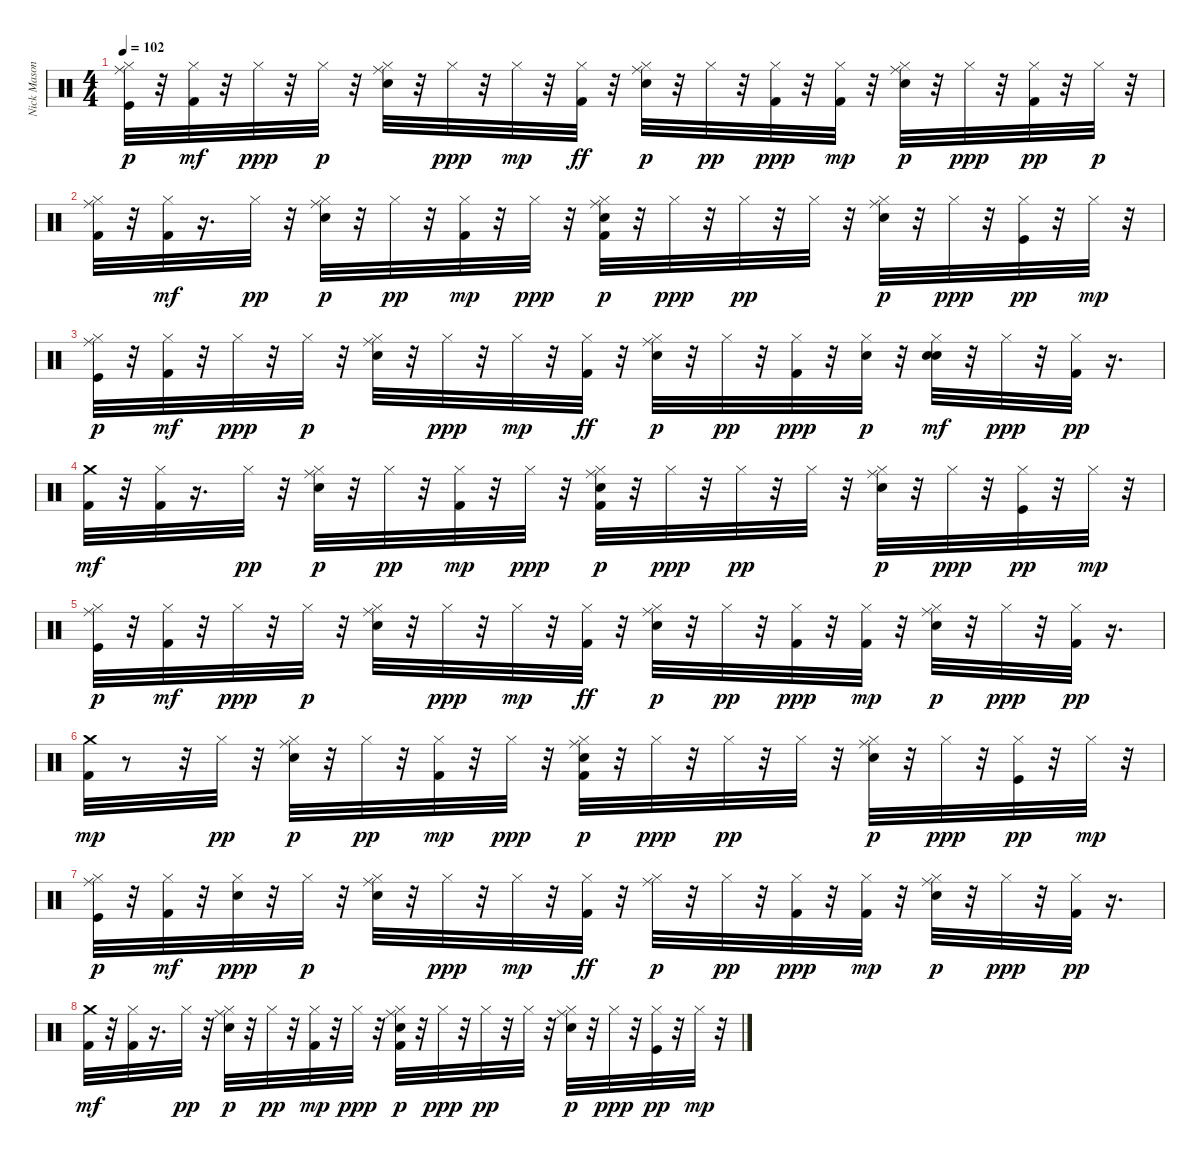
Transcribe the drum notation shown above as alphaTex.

\track ("Nick Mason / Gary Wallis" "Nick Mason") {instrument percussion}
\staff {score}
\articulation defaults
\ts (4 4)
\tempo 102
\clef neutral
\ks c
("Kick (hit)" "Hi-Hat (closed)" "Ride (middle)").32{dy p} r.32 ("Hi-Hat (closed)" "Kick (hit) 2").32{dy mf} r.32 "Hi-Hat (closed)".32{dy ppp} r.32 "Hi-Hat (closed)".32{dy p} r.32 ("Snare (hit) 2" "Hi-Hat (closed)" "Ride (middle)").32 r.32 "Hi-Hat (closed)".32{dy ppp} r.32 "Hi-Hat (closed)".32{dy mp} r.32 ("Hi-Hat (closed)" "Kick (hit) 2").32{dy ff} r.32 ("Electric Snare (hit)" "Hi-Hat (closed)" "Ride (middle)").32{dy p} r.32 "Hi-Hat (closed)".32{dy pp} r.32 ("Hi-Hat (closed)" "Kick (hit) 2").32{dy ppp} r.32 ("Hi-Hat (closed)" "Kick (hit) 2").32{dy mp} r.32 ("Snare (hit) 2" "Hi-Hat (closed)" "Ride (middle)").32{dy p} r.32 "Hi-Hat (closed)".32{dy ppp} r.32 ("Kick (hit) 2" "Hi-Hat (closed)").32{dy pp} r.32 "Hi-Hat (closed)".32{dy p} r.32 |
("Kick (hit) 2" "Hi-Hat (closed)" "Ride (middle)").32 r.32 ("Hi-Hat (closed)" "Kick (hit) 2").32{dy mf} r.16{d} "Hi-Hat (closed)".32{dy pp} r.32 ("Snare (hit) 2" "Hi-Hat (closed)" "Ride (middle)").32{dy p} r.32 "Hi-Hat (closed)".32{dy pp} r.32 ("Kick (hit) 2" "Hi-Hat (closed)").32{dy mp} r.32 "Hi-Hat (closed)".32{dy ppp} r.32 ("Kick (hit) 2" "Electric Snare (hit)" "Hi-Hat (closed)" "Ride (middle)").32{dy p} r.32 "Hi-Hat (closed)".32{dy ppp} r.32 "Hi-Hat (closed)".32{dy pp} r.32 "Hi-Hat (closed)".32 r.32 ("Snare (hit) 2" "Hi-Hat (closed)" "Ride (middle)").32{dy p} r.32 "Hi-Hat (closed)".32{dy ppp} r.32 ("Kick (hit)" "Hi-Hat (closed)").32{dy pp} r.32 "Hi-Hat (closed)".32{dy mp} r.32 |
("Kick (hit)" "Hi-Hat (closed)" "Ride (middle)").32{dy p} r.32 ("Hi-Hat (closed)" "Kick (hit) 2").32{dy mf} r.32 "Hi-Hat (closed)".32{dy ppp} r.32 "Hi-Hat (closed)".32{dy p} r.32 ("Snare (hit) 2" "Hi-Hat (closed)" "Ride (middle)").32 r.32 "Hi-Hat (closed)".32{dy ppp} r.32 "Hi-Hat (closed)".32{dy mp} r.32 ("Hi-Hat (closed)" "Kick (hit) 2").32{dy ff} r.32 ("Electric Snare (hit)" "Hi-Hat (closed)" "Ride (middle)").32{dy p} r.32 "Hi-Hat (closed)".32{dy pp} r.32 ("Hi-Hat (closed)" "Kick (hit) 2").32{dy ppp} r.32 ("Electric Snare (hit)" "Hi-Hat (closed)").32{dy p} r.32 ("Snare (hit) 2" "Electric Snare (hit)" "Hi-Hat (closed)").32{dy mf} r.32 "Hi-Hat (closed)".32{dy ppp} r.32 ("Kick (hit) 2" "Hi-Hat (closed)").32{dy pp} r.16{d} |
("Kick (hit) 2" "Crash medium (hit)").32{dy mf} r.32 ("Hi-Hat (closed)" "Kick (hit) 2").32 r.16{d} "Hi-Hat (closed)".32{dy pp} r.32 ("Snare (hit) 2" "Hi-Hat (closed)" "Ride (middle)").32{dy p} r.32 "Hi-Hat (closed)".32{dy pp} r.32 ("Kick (hit) 2" "Hi-Hat (closed)").32{dy mp} r.32 "Hi-Hat (closed)".32{dy ppp} r.32 ("Kick (hit) 2" "Electric Snare (hit)" "Hi-Hat (closed)" "Ride (middle)").32{dy p} r.32 "Hi-Hat (closed)".32{dy ppp} r.32 "Hi-Hat (closed)".32{dy pp} r.32 "Hi-Hat (closed)".32 r.32 ("Snare (hit) 2" "Hi-Hat (closed)" "Ride (middle)").32{dy p} r.32 "Hi-Hat (closed)".32{dy ppp} r.32 ("Kick (hit)" "Hi-Hat (closed)").32{dy pp} r.32 "Hi-Hat (closed)".32{dy mp} r.32 |
("Kick (hit)" "Hi-Hat (closed)" "Ride (middle)").32{dy p} r.32 ("Hi-Hat (closed)" "Kick (hit) 2").32{dy mf} r.32 "Hi-Hat (closed)".32{dy ppp} r.32 "Hi-Hat (closed)".32{dy p} r.32 ("Snare (hit) 2" "Hi-Hat (closed)" "Ride (middle)").32 r.32 "Hi-Hat (closed)".32{dy ppp} r.32 "Hi-Hat (closed)".32{dy mp} r.32 ("Hi-Hat (closed)" "Kick (hit) 2").32{dy ff} r.32 ("Electric Snare (hit)" "Hi-Hat (closed)" "Ride (middle)").32{dy p} r.32 "Hi-Hat (closed)".32{dy pp} r.32 ("Hi-Hat (closed)" "Kick (hit) 2").32{dy ppp} r.32 ("Hi-Hat (closed)" "Kick (hit) 2").32{dy mp} r.32 ("Snare (hit) 2" "Hi-Hat (closed)" "Ride (middle)").32{dy p} r.32 "Hi-Hat (closed)".32{dy ppp} r.32 ("Kick (hit) 2" "Hi-Hat (closed)").32{dy pp} r.16{d} |
("Kick (hit) 2" "Crash medium (hit)").32{dy mp} r.8 r.32 "Hi-Hat (closed)".32{dy pp} r.32 ("Snare (hit) 2" "Hi-Hat (closed)" "Ride (middle)").32{dy p} r.32 "Hi-Hat (closed)".32{dy pp} r.32 ("Kick (hit) 2" "Hi-Hat (closed)").32{dy mp} r.32 "Hi-Hat (closed)".32{dy ppp} r.32 ("Kick (hit) 2" "Electric Snare (hit)" "Hi-Hat (closed)" "Ride (middle)").32{dy p} r.32 "Hi-Hat (closed)".32{dy ppp} r.32 "Hi-Hat (closed)".32{dy pp} r.32 "Hi-Hat (closed)".32 r.32 ("Snare (hit) 2" "Hi-Hat (closed)" "Ride (middle)").32{dy p} r.32 "Hi-Hat (closed)".32{dy ppp} r.32 ("Kick (hit)" "Hi-Hat (closed)").32{dy pp} r.32 "Hi-Hat (closed)".32{dy mp} r.32 |
("Kick (hit)" "Hi-Hat (closed)" "Ride (middle)").32{dy p} r.32 ("Hi-Hat (closed)" "Kick (hit) 2").32{dy mf} r.32 ("Electric Snare (hit)" "Hi-Hat (closed)").32{dy ppp} r.32 "Hi-Hat (closed)".32{dy p} r.32 ("Snare (hit) 2" "Hi-Hat (closed)" "Ride (middle)").32 r.32 "Hi-Hat (closed)".32{dy ppp} r.32 "Hi-Hat (closed)".32{dy mp} r.32 ("Hi-Hat (closed)" "Kick (hit) 2").32{dy ff} r.32 ("Hi-Hat (closed)" "Ride (middle)").32{dy p} r.32 "Hi-Hat (closed)".32{dy pp} r.32 ("Hi-Hat (closed)" "Kick (hit) 2").32{dy ppp} r.32 ("Hi-Hat (closed)" "Kick (hit) 2").32{dy mp} r.32 ("Snare (hit) 2" "Hi-Hat (closed)" "Ride (middle)").32{dy p} r.32 "Hi-Hat (closed)".32{dy ppp} r.32 ("Kick (hit) 2" "Hi-Hat (closed)").32{dy pp} r.16{d} |
("Kick (hit) 2" "Crash medium (hit)").32{dy mf} r.32 ("Hi-Hat (closed)" "Kick (hit) 2").32 r.16{d} "Hi-Hat (closed)".32{dy pp} r.32 ("Snare (hit) 2" "Hi-Hat (closed)" "Ride (middle)").32{dy p} r.32 "Hi-Hat (closed)".32{dy pp} r.32 ("Kick (hit) 2" "Hi-Hat (closed)").32{dy mp} r.32 "Hi-Hat (closed)".32{dy ppp} r.32 ("Kick (hit) 2" "Electric Snare (hit)" "Hi-Hat (closed)" "Ride (middle)").32{dy p} r.32 "Hi-Hat (closed)".32{dy ppp} r.32 "Hi-Hat (closed)".32{dy pp} r.32 "Hi-Hat (closed)".32 r.32 ("Snare (hit) 2" "Hi-Hat (closed)" "Ride (middle)").32{dy p} r.32 "Hi-Hat (closed)".32{dy ppp} r.32 ("Kick (hit)" "Hi-Hat (closed)").32{dy pp} r.32 "Hi-Hat (closed)".32{dy mp} r.32
